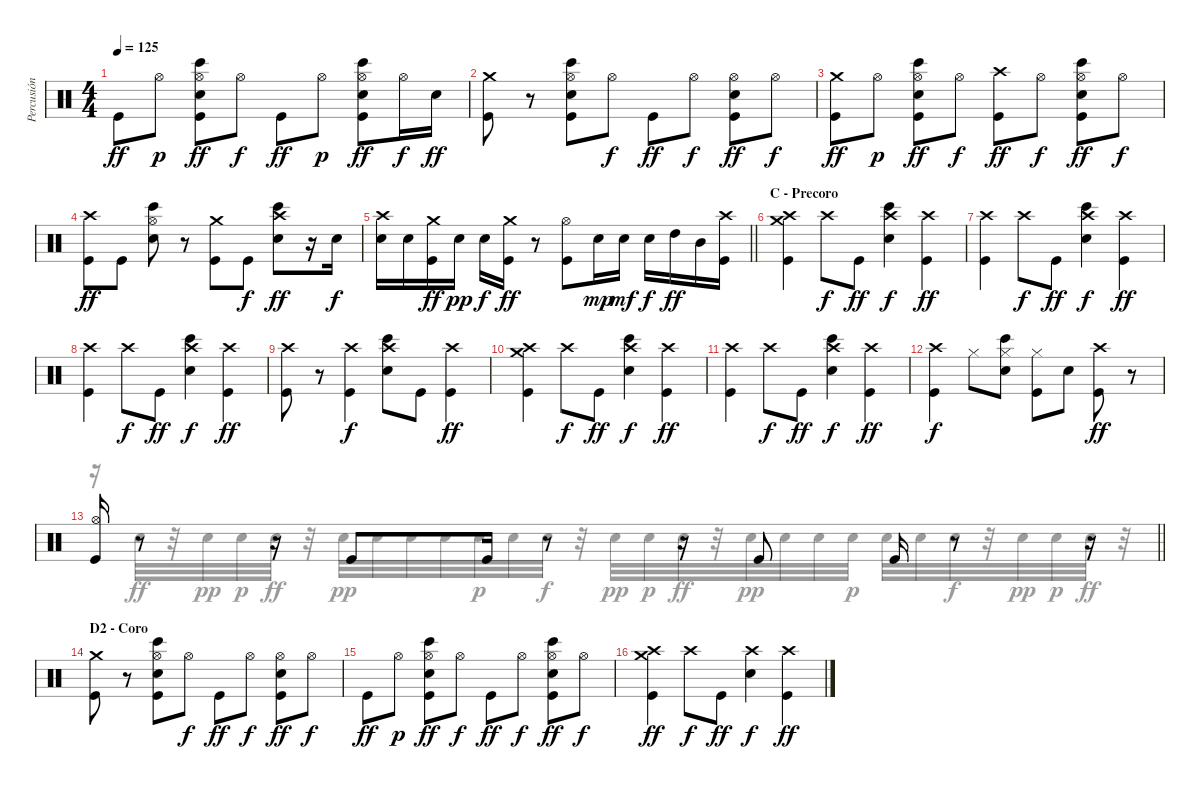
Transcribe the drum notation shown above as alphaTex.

\track ("Percusión" "Percusión") {instrument percussion}
\staff {score}
\articulation defaults
\voice
\ts (4 4)
\tempo 125
\clef neutral
\ks c "Kick (hit)".8{dy ff} "Hi-Hat (open)".8{dy p}
("Hi-Hat (open)" "Bongo High (hit)" "Snare (hit) 2" "Kick (hit)").8{dy ff} "Hi-Hat (open)".8{dy f} "Kick (hit)".8{dy ff} "Hi-Hat (open)".8{dy p} ("Hi-Hat (open)" "Bongo High (hit)" "Snare (hit) 2" "Kick (hit)").8{dy ff} "Hi-Hat (open)".16{dy f} "Snare (hit) 2".16{dy ff} |
("Crash medium (hit)" "Kick (hit)").8 r.8 ("Hi-Hat (open)" "Bongo High (hit)" "Snare (hit) 2" "Kick (hit)").8 "Hi-Hat (open)".8{dy f} "Kick (hit)".8{dy ff} "Hi-Hat (open)".8{dy f} ("Hi-Hat (open)" "Snare (hit) 2" "Kick (hit)").8{dy ff} "Hi-Hat (open)".8{dy f} |
("Crash medium (hit)" "Kick (hit)").8{dy ff} "Hi-Hat (open)".8{dy p} ("Hi-Hat (open)" "Bongo High (hit)" "Snare (hit) 2" "Kick (hit)").8{dy ff} "Hi-Hat (open)".8{dy f} ("Crash high (hit)" "Kick (hit)").8{dy ff} "Hi-Hat (open)".8{dy f} ("Hi-Hat (open)" "Bongo High (hit)" "Snare (hit) 2" "Kick (hit)").8{dy ff} "Hi-Hat (open)".8{dy f} |
("Crash high (hit)" "Kick (hit)").8{dy ff} "Kick (hit)".8 ("Hi-Hat (open)" "Bongo High (hit)" "Snare (hit) 2").8 r.8 ("Crash medium (hit)" "Kick (hit)").8 "Kick (hit)".8{dy f} ("Crash high (hit)" "Bongo High (hit)" "Snare (hit) 2").8{dy ff} r.16 "Snare (hit) 2".16{dy f} |
\barLineRight lightlight
("Crash high (hit)" "Snare (hit) 2").16 "Snare (hit) 2".16 ("Crash medium (hit)" "Kick (hit)").16{dy ff} "Snare (hit) 2".16{dy pp} "Snare (hit) 2".16{dy f} ("Crash medium (hit)" "Kick (hit)").16{dy ff} r.8 ("Hi-Hat (open)" "Kick (hit)").8 "Snare (hit) 2".16{dy mp} "Snare (hit) 2".16{dy mf} "Snare (hit) 2".16{dy f} "High Tom (hit)".16{dy ff} "Mid Tom (hit)".16 ("Crash high (hit)" "Kick (hit)").16 |
\section ("" "C - Precoro")
("Crash high (hit)" "Crash medium (hit)" "Kick (hit)").4 "Crash high (hit)".8{dy f} "Kick (hit)".8{dy ff} ("Crash high (hit)" "Bongo High (hit)" "Snare (hit) 2").4{dy f} ("Crash high (hit)" "Kick (hit)").4{dy ff} |
("Crash high (hit)" "Kick (hit)").4 "Crash high (hit)".8{dy f} "Kick (hit)".8{dy ff} ("Crash high (hit)" "Bongo High (hit)" "Snare (hit) 2").4{dy f} ("Crash high (hit)" "Kick (hit)").4{dy ff} |
("Crash high (hit)" "Kick (hit)").4 "Crash high (hit)".8{dy f} "Kick (hit)".8{dy ff} ("Crash high (hit)" "Bongo High (hit)" "Snare (hit) 2").4{dy f} ("Crash high (hit)" "Kick (hit)").4{dy ff} |
("Crash high (hit)" "Kick (hit)").8 r.8 ("Crash high (hit)" "Kick (hit)").4{dy f} ("Crash high (hit)" "Bongo High (hit)" "Snare (hit) 2").8 "Kick (hit)".8 ("Crash high (hit)" "Kick (hit)").4{dy ff} |
("Crash high (hit)" "Crash medium (hit)" "Kick (hit)").4 "Crash high (hit)".8{dy f} "Kick (hit)".8{dy ff} ("Crash high (hit)" "Bongo High (hit)" "Snare (hit) 2").4{dy f} ("Crash high (hit)" "Kick (hit)").4{dy ff} |
("Crash high (hit)" "Kick (hit)").4 "Crash high (hit)".8{dy f} "Kick (hit)".8{dy ff} ("Crash high (hit)" "Bongo High (hit)" "Snare (hit) 2").4{dy f} ("Crash high (hit)" "Kick (hit)").4{dy ff} |
("Crash high (hit)" "Kick (hit)").4{dy f} "Hi-Hat (closed)".8 ("Hi-Hat (closed)" "Bongo High (hit)" "Snare (hit) 2").8 ("Hi-Hat (closed)" "Kick (hit)").8 "Snare (hit) 2".8 ("Crash high (hit)" "Kick (hit)").8{dy ff} r.8 |
\barLineRight lightlight
("Hi-Hat (open)" "Kick (hit)").16 r.8 r.16 "Kick (hit)".8 "Kick (hit)".16 r.8 r.16 "Kick (hit)".8 "Kick (hit)".16 r.8 r.16 |
\section ("" "D2 - Coro")
("Crash medium (hit)" "Kick (hit)").8 r.8 ("Hi-Hat (open)" "Bongo High (hit)" "Snare (hit) 2" "Kick (hit)").8 "Hi-Hat (open)".8{dy f} "Kick (hit)".8{dy ff} "Hi-Hat (open)".8{dy f} ("Hi-Hat (open)" "Snare (hit) 2" "Kick (hit)").8{dy ff} "Hi-Hat (open)".8{dy f} |
"Kick (hit)".8{dy ff} "Hi-Hat (open)".8{dy p} ("Hi-Hat (open)" "Bongo High (hit)" "Snare (hit) 2" "Kick (hit)").8{dy ff} "Hi-Hat (open)".8{dy f} "Kick (hit)".8{dy ff} "Hi-Hat (open)".8{dy f} ("Hi-Hat (open)" "Bongo High (hit)" "Snare (hit) 2" "Kick (hit)").8{dy ff} "Hi-Hat (open)".8{dy f} |
("Crash high (hit)" "Crash medium (hit)" "Kick (hit)").4{dy ff} "Crash high (hit)".8{dy f} "Kick (hit)".8{dy ff} ("Crash high (hit)" "Snare (hit) 2").4{dy f} ("Crash high (hit)" "Kick (hit)").4{dy ff}
\voice
\clef neutral
\ottava regular
\simile none
\ks c
|
|
|
|
\barLineRight lightlight
|
|
|
|
|
|
|
|
\barLineRight lightlight
r.16 "Snare (hit) 2".32 r.32 "Snare (hit) 2".32{dy pp} "Snare (hit) 2".32{dy p} "Snare (hit) 2".32{dy ff} r.32 "Snare (hit) 2".32{dy pp} "Snare (hit) 2".32 "Snare (hit) 2".32 "Snare (hit) 2".32 "Snare (hit) 2".32{dy p} "Snare (hit) 2".32 "Snare (hit) 2".32{dy f} r.32 "Snare (hit) 2".32{dy pp} "Snare (hit) 2".32{dy p} "Snare (hit) 2".32{dy ff} r.32 "Snare (hit) 2".32{dy pp} "Snare (hit) 2".32 "Snare (hit) 2".32 "Snare (hit) 2".32{dy p} "Snare (hit) 2".32 "Snare (hit) 2".32 "Snare (hit) 2".32{dy f} r.32 "Snare (hit) 2".32{dy pp} "Snare (hit) 2".32{dy p} "Snare (hit) 2".32{dy ff} r.32 |
|
|
